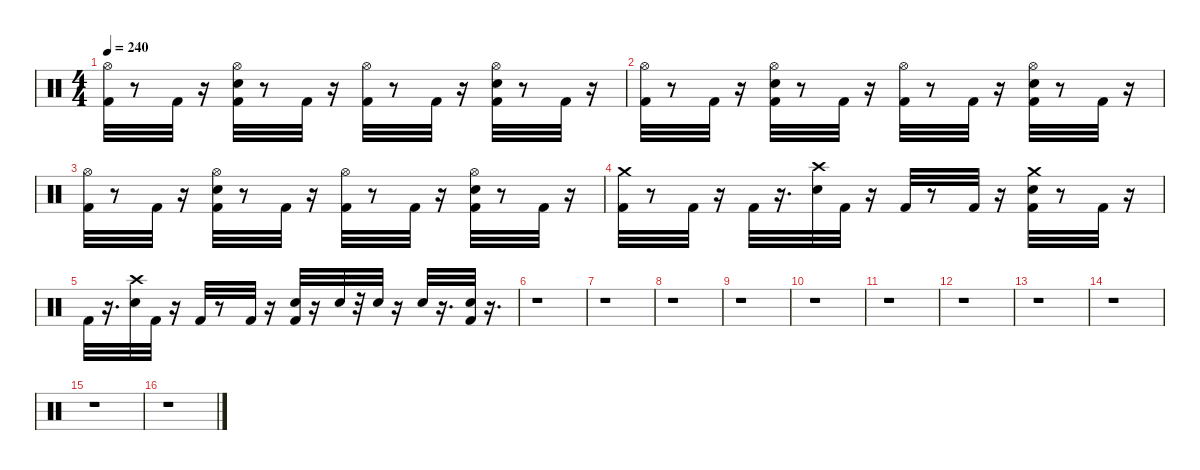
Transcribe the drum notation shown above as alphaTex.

\defaultSystemsLayout 4
\hideDynamics
\bracketExtendMode nobrackets
\singleTrackTrackNamePolicy hidden
\multiTrackTrackNamePolicy hidden
\otherSystemsTrackNameOrientation horizontal
\track ("Drums" "drm.") {instrument percussion}
\staff {score}
\articulation defaults
\ts (4 4)
\tempo 240
\clef neutral
\ks c
("Hi-Hat (open)" "Kick (hit) 2").32{dy f} r.8 "Kick (hit) 2".32 r.16 ("Hi-Hat (open)" "Snare (hit) 2" "Kick (hit) 2").32 r.8 "Kick (hit) 2".32 r.16 ("Hi-Hat (open)" "Kick (hit) 2").32 r.8 "Kick (hit) 2".32 r.16 ("Hi-Hat (open)" "Snare (hit) 2" "Kick (hit) 2").32 r.8 "Kick (hit) 2".32 r.16 |
("Hi-Hat (open)" "Kick (hit) 2").32 r.8 "Kick (hit) 2".32 r.16 ("Hi-Hat (open)" "Snare (hit) 2" "Kick (hit) 2").32 r.8 "Kick (hit) 2".32 r.16 ("Hi-Hat (open)" "Kick (hit) 2").32 r.8 "Kick (hit) 2".32 r.16 ("Hi-Hat (open)" "Snare (hit) 2" "Kick (hit) 2").32 r.8 "Kick (hit) 2".32 r.16 |
("Kick (hit) 2" "Hi-Hat (open)").32 r.8 "Kick (hit) 2".32 r.16 ("Kick (hit) 2" "Snare (hit) 2" "Hi-Hat (open)").32 r.8 "Kick (hit) 2".32 r.16 ("Kick (hit) 2" "Hi-Hat (open)").32 r.8 "Kick (hit) 2".32 r.16 ("Hi-Hat (open)" "Snare (hit) 2" "Kick (hit) 2").32 r.8 "Kick (hit) 2".32 r.16 |
("Kick (hit) 2" "Crash medium (hit)").32 r.8 "Kick (hit) 2".32 r.16 "Kick (hit) 2".32 r.16{d} ("Snare (hit) 2" "Crash high (hit)").32 "Kick (hit) 2".32 r.16 "Kick (hit) 2".32 r.8 "Kick (hit) 2".32 r.16 ("Crash medium (hit)" "Kick (hit) 2" "Snare (hit) 2").32 r.8 "Kick (hit) 2".32 r.16 |
"Kick (hit) 2".32 r.16{d} ("Crash high (hit)" "Snare (hit) 2").32 "Kick (hit) 2".32 r.16 "Kick (hit) 2".32 r.8 "Kick (hit) 2".32 r.16 ("Snare (hit) 2" "Kick (hit) 2").32 r.16 "Snare (hit) 2".32 r.32 "Snare (hit) 2".32 r.16 "Snare (hit) 2".32 r.16{d} ("Kick (hit) 2" "Snare (hit) 2").32 r.16{d} |
r.1 |
r.1 |
r.1 |
r.1 |
r.1 |
r.1 |
r.1 |
r.1 |
r.1 |
r.1 |
r.1
